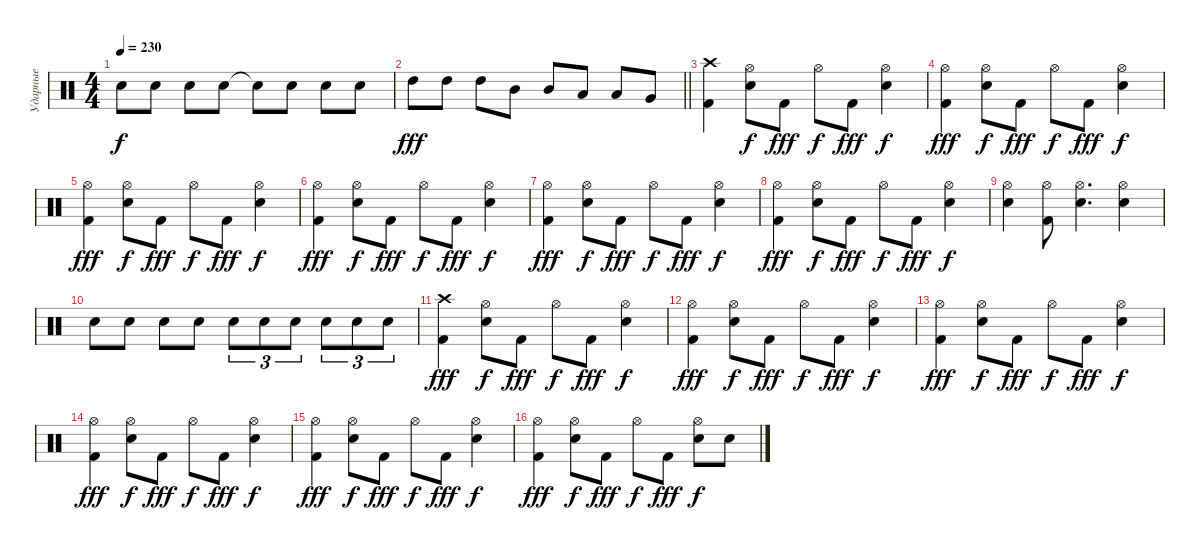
\track ("Ударные" "Ударные") {instrument percussion}
\staff
\articulation defaults
\ts (4 4)
\tempo 230
\clef neutral
\ks c "Snare (hit) 2".8{dy f} "Snare (hit) 2".8 "Snare (hit) 2".8 "Snare (hit) 2".8 "Snare (hit) 2"{t}.8 "Snare (hit) 2".8 "Snare (hit) 2".8 "Snare (hit) 2".8
|
\barLineRight lightlight "High Tom (hit)".8{dy fff} "High Tom (hit)".8 "High Tom (hit)".8 "Mid Tom (hit)".8 "Mid Tom (hit)".8 "Low Tom (hit)".8 "Low Tom (hit)".8 "Very Low Tom (hit)".8
|
("Kick (hit) 2" "Crash high (hit)").4 ("Snare (hit) 2" "Hi-Hat (open)").8{dy f} "Kick (hit) 2".8{dy fff} "Hi-Hat (open)".8{dy f} "Kick (hit) 2".8{dy fff} ("Snare (hit) 2" "Hi-Hat (open)").4{dy f} |
("Kick (hit) 2" "Hi-Hat (open)").4{dy fff} ("Snare (hit) 2" "Hi-Hat (open)").8{dy f} "Kick (hit) 2".8{dy fff} "Hi-Hat (open)".8{dy f} "Kick (hit) 2".8{dy fff} ("Snare (hit) 2" "Hi-Hat (open)").4{dy f} |
("Kick (hit) 2" "Hi-Hat (open)").4{dy fff} ("Snare (hit) 2" "Hi-Hat (open)").8{dy f} "Kick (hit) 2".8{dy fff} "Hi-Hat (open)".8{dy f} "Kick (hit) 2".8{dy fff} ("Snare (hit) 2" "Hi-Hat (open)").4{dy f} |
("Kick (hit) 2" "Hi-Hat (open)").4{dy fff} ("Snare (hit) 2" "Hi-Hat (open)").8{dy f} "Kick (hit) 2".8{dy fff} "Hi-Hat (open)".8{dy f} "Kick (hit) 2".8{dy fff} ("Snare (hit) 2" "Hi-Hat (open)").4{dy f} |
("Kick (hit) 2" "Hi-Hat (open)").4{dy fff} ("Snare (hit) 2" "Hi-Hat (open)").8{dy f} "Kick (hit) 2".8{dy fff} "Hi-Hat (open)".8{dy f} "Kick (hit) 2".8{dy fff} ("Snare (hit) 2" "Hi-Hat (open)").4{dy f} |
("Kick (hit) 2" "Hi-Hat (open)").4{dy fff} ("Snare (hit) 2" "Hi-Hat (open)").8{dy f} "Kick (hit) 2".8{dy fff} "Hi-Hat (open)".8{dy f} "Kick (hit) 2".8{dy fff} ("Snare (hit) 2" "Hi-Hat (open)").4{dy f} |
("Snare (hit) 2" "Hi-Hat (open)").4 ("Kick (hit) 2" "Hi-Hat (open)").8 ("Snare (hit) 2" "Hi-Hat (open)").4{d} ("Snare (hit) 2" "Hi-Hat (open)").4 |
"Snare (hit) 2".8 "Snare (hit) 2".8 "Snare (hit) 2".8 "Snare (hit) 2".8 "Snare (hit) 2".8{tu (3 2)} "Snare (hit) 2".8{tu (3 2)} "Snare (hit) 2".8{tu (3 2)} "Snare (hit) 2".8{tu (3 2)} "Snare (hit) 2".8{tu (3 2)} "Snare (hit) 2".8{tu (3 2)} |
("Kick (hit) 2" "Crash high (hit)").4{dy fff} ("Snare (hit) 2" "Hi-Hat (open)").8{dy f} "Kick (hit) 2".8{dy fff} "Hi-Hat (open)".8{dy f} "Kick (hit) 2".8{dy fff} ("Snare (hit) 2" "Hi-Hat (open)").4{dy f} |
("Kick (hit) 2" "Hi-Hat (open)").4{dy fff} ("Snare (hit) 2" "Hi-Hat (open)").8{dy f} "Kick (hit) 2".8{dy fff} "Hi-Hat (open)".8{dy f} "Kick (hit) 2".8{dy fff} ("Snare (hit) 2" "Hi-Hat (open)").4{dy f} |
("Kick (hit) 2" "Hi-Hat (open)").4{dy fff} ("Snare (hit) 2" "Hi-Hat (open)").8{dy f} "Kick (hit) 2".8{dy fff} "Hi-Hat (open)".8{dy f} "Kick (hit) 2".8{dy fff} ("Snare (hit) 2" "Hi-Hat (open)").4{dy f} |
("Kick (hit) 2" "Hi-Hat (open)").4{dy fff} ("Snare (hit) 2" "Hi-Hat (open)").8{dy f} "Kick (hit) 2".8{dy fff} "Hi-Hat (open)".8{dy f} "Kick (hit) 2".8{dy fff} ("Snare (hit) 2" "Hi-Hat (open)").4{dy f} |
("Kick (hit) 2" "Hi-Hat (open)").4{dy fff} ("Snare (hit) 2" "Hi-Hat (open)").8{dy f} "Kick (hit) 2".8{dy fff} "Hi-Hat (open)".8{dy f} "Kick (hit) 2".8{dy fff} ("Snare (hit) 2" "Hi-Hat (open)").4{dy f} |
("Kick (hit) 2" "Hi-Hat (open)").4{dy fff} ("Snare (hit) 2" "Hi-Hat (open)").8{dy f} "Kick (hit) 2".8{dy fff} "Hi-Hat (open)".8{dy f} "Kick (hit) 2".8{dy fff} ("Snare (hit) 2" "Hi-Hat (open)").8{dy f} "Snare (hit) 2".8
